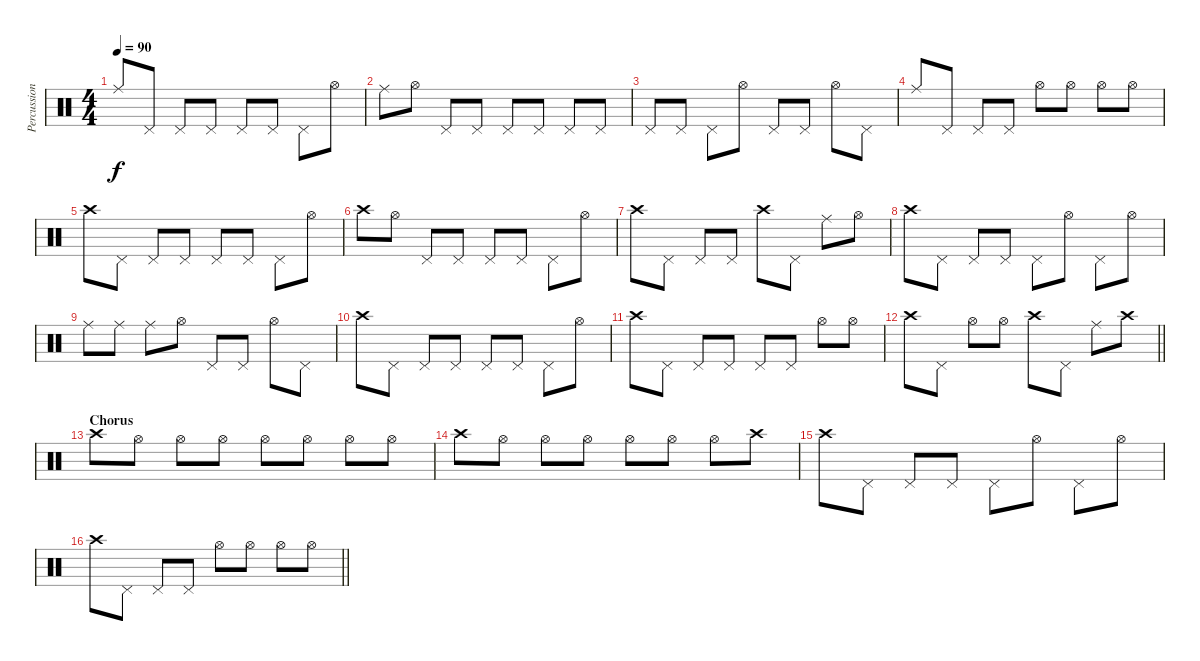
\track ("Percussion" "Percussion") {instrument percussion}
\staff
\articulation defaults
\ts (4 4)
\tempo 90
\clef neutral
\ks c "Ride (middle)".8{dy f} "Pedal Hi-Hat (hit)".8 "Pedal Hi-Hat (hit)".8 "Pedal Hi-Hat (hit)".8 "Pedal Hi-Hat (hit)".8 "Pedal Hi-Hat (hit)".8 "Pedal Hi-Hat (hit)".8 "Hi-Hat (open)".8
|
"Ride (middle)".8 "Hi-Hat (open)".8 "Pedal Hi-Hat (hit)".8 "Pedal Hi-Hat (hit)".8 "Pedal Hi-Hat (hit)".8 "Pedal Hi-Hat (hit)".8 "Pedal Hi-Hat (hit)".8 "Pedal Hi-Hat (hit)".8 |
"Pedal Hi-Hat (hit)".8 "Pedal Hi-Hat (hit)".8 "Pedal Hi-Hat (hit)".8 "Hi-Hat (open)".8 "Pedal Hi-Hat (hit)".8 "Pedal Hi-Hat (hit)".8 "Hi-Hat (open)".8 "Pedal Hi-Hat (hit)".8 |
"Ride (middle)".8 "Pedal Hi-Hat (hit)".8 "Pedal Hi-Hat (hit)".8 "Pedal Hi-Hat (hit)".8 "Hi-Hat (open)".8 "Hi-Hat (open)".8 "Hi-Hat (open)".8 "Hi-Hat (open)".8 |
"Crash high (hit)".8 "Pedal Hi-Hat (hit)".8 "Pedal Hi-Hat (hit)".8 "Pedal Hi-Hat (hit)".8 "Pedal Hi-Hat (hit)".8 "Pedal Hi-Hat (hit)".8 "Pedal Hi-Hat (hit)".8 "Hi-Hat (open)".8 |
"Crash high (hit)".8 "Hi-Hat (open)".8 "Pedal Hi-Hat (hit)".8 "Pedal Hi-Hat (hit)".8 "Pedal Hi-Hat (hit)".8 "Pedal Hi-Hat (hit)".8 "Pedal Hi-Hat (hit)".8 "Hi-Hat (open)".8 |
"Crash high (hit)".8 "Pedal Hi-Hat (hit)".8 "Pedal Hi-Hat (hit)".8 "Pedal Hi-Hat (hit)".8 "Crash high (hit)".8 "Pedal Hi-Hat (hit)".8 "Ride (middle)".8 "Hi-Hat (open)".8 |
"Crash high (hit)".8 "Pedal Hi-Hat (hit)".8 "Pedal Hi-Hat (hit)".8 "Pedal Hi-Hat (hit)".8 "Pedal Hi-Hat (hit)".8 "Hi-Hat (open)".8 "Pedal Hi-Hat (hit)".8 "Hi-Hat (open)".8 |
"Ride (middle)".8 "Ride (middle)".8 "Ride (middle)".8 "Hi-Hat (open)".8 "Pedal Hi-Hat (hit)".8 "Pedal Hi-Hat (hit)".8 "Hi-Hat (open)".8 "Pedal Hi-Hat (hit)".8 |
"Crash high (hit)".8 "Pedal Hi-Hat (hit)".8 "Pedal Hi-Hat (hit)".8 "Pedal Hi-Hat (hit)".8 "Pedal Hi-Hat (hit)".8 "Pedal Hi-Hat (hit)".8 "Pedal Hi-Hat (hit)".8 "Hi-Hat (open)".8 |
"Crash high (hit)".8 "Pedal Hi-Hat (hit)".8 "Pedal Hi-Hat (hit)".8 "Pedal Hi-Hat (hit)".8 "Pedal Hi-Hat (hit)".8 "Pedal Hi-Hat (hit)".8 "Hi-Hat (open)".8 "Hi-Hat (open)".8 |
\barLineRight lightlight "Crash high (hit)".8 "Pedal Hi-Hat (hit)".8 "Hi-Hat (open)".8 "Hi-Hat (open)".8 "Crash high (hit)".8 "Pedal Hi-Hat (hit)".8 "Ride (middle)".8 "Crash high (hit)".8
|
\section ("" "Chorus")
"Crash high (hit)".8 "Hi-Hat (open)".8 "Hi-Hat (open)".8 "Hi-Hat (open)".8 "Hi-Hat (open)".8 "Hi-Hat (open)".8 "Hi-Hat (open)".8 "Hi-Hat (open)".8 |
"Crash high (hit)".8 "Hi-Hat (open)".8 "Hi-Hat (open)".8 "Hi-Hat (open)".8 "Hi-Hat (open)".8 "Hi-Hat (open)".8 "Hi-Hat (open)".8 "Crash high (hit)".8 |
"Crash high (hit)".8 "Pedal Hi-Hat (hit)".8 "Pedal Hi-Hat (hit)".8 "Pedal Hi-Hat (hit)".8 "Pedal Hi-Hat (hit)".8 "Hi-Hat (open)".8 "Pedal Hi-Hat (hit)".8 "Hi-Hat (open)".8 |
\barLineRight lightlight "Crash high (hit)".8 "Pedal Hi-Hat (hit)".8 "Pedal Hi-Hat (hit)".8 "Pedal Hi-Hat (hit)".8 "Hi-Hat (open)".8 "Hi-Hat (open)".8 "Hi-Hat (open)".8 "Hi-Hat (open)".8
